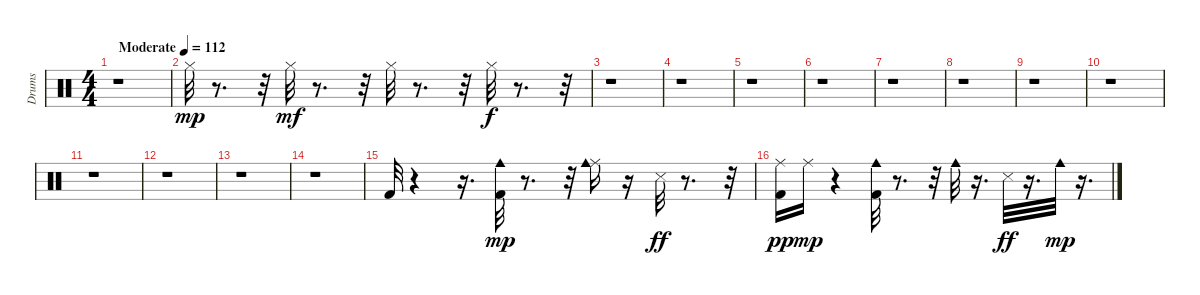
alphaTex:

\track ("Drums" "Drums") {instrument percussion}
\staff {score}
\articulation defaults
\ts (4 4)
\tempo (112 "Moderate")
\clef neutral
\ks c
r.1{dy mp} |
"Hi-Hat (closed)".32 r.8{d} r.32 "Hi-Hat (closed)".32{dy mf} r.8{d} r.32 "Hi-Hat (closed)".32 r.8{d} r.32 "Hi-Hat (closed)".32{dy f} r.8{d} r.32 |
r.1 |
r.1 |
r.1 |
r.1 |
r.1 |
r.1 |
r.1 |
r.1 |
r.1 |
r.1 |
r.1 |
r.1 |
"Kick (hit) 2".32 r.4 r.16{d} ("Kick (hit) 2" "Cowbell medium (hit)").32{dy mp} r.8{d} r.32 ("Ride (middle)" "Cowbell medium (hit)").16 r.16 "Snare (side stick) 3".32{dy ff} r.8{d} r.32 |
("Ride (middle)" "Kick (hit) 2").16{dy pp} "Ride (middle)".16{dy mp} r.4 ("Kick (hit) 2" "Cowbell medium (hit)").32 r.8{d} r.32 "Cowbell medium (hit)".32 r.16{d} "Snare (side stick) 3".32{dy ff} r.16{d} "Cowbell medium (hit)".32{dy mp} r.16{d}
